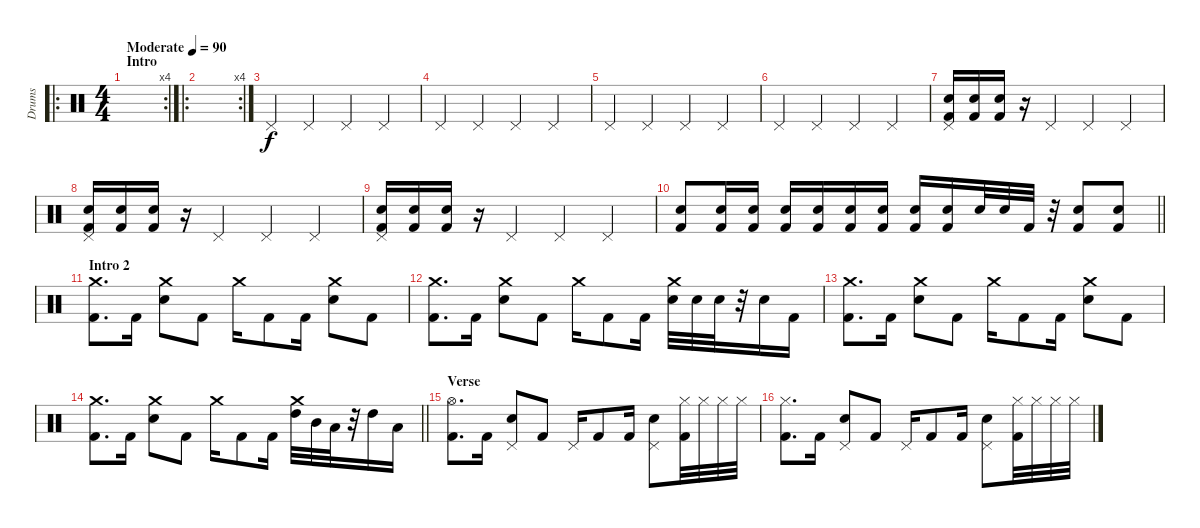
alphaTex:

\track ("Drums" "Drums") {instrument percussion}
\staff {score}
\articulation defaults
\ro
\rc 4
\ts (4 4)
\section ("" "Intro")
\tempo (90 "Moderate")
\clef neutral
\ks c
|
\ro
\rc 4
|
"Pedal Hi-Hat (hit)".4 "Pedal Hi-Hat (hit)".4 "Pedal Hi-Hat (hit)".4 "Pedal Hi-Hat (hit)".4 |
"Pedal Hi-Hat (hit)".4 "Pedal Hi-Hat (hit)".4 "Pedal Hi-Hat (hit)".4 "Pedal Hi-Hat (hit)".4 |
"Pedal Hi-Hat (hit)".4 "Pedal Hi-Hat (hit)".4 "Pedal Hi-Hat (hit)".4 "Pedal Hi-Hat (hit)".4 |
"Pedal Hi-Hat (hit)".4 "Pedal Hi-Hat (hit)".4 "Pedal Hi-Hat (hit)".4 "Pedal Hi-Hat (hit)".4 |
("Pedal Hi-Hat (hit)" "Electric Snare (hit)" "Kick (hit) 2").16 ("Electric Snare (hit)" "Kick (hit) 2").16 ("Electric Snare (hit)" "Kick (hit) 2").16 r.16 "Pedal Hi-Hat (hit)".4 "Pedal Hi-Hat (hit)".4 "Pedal Hi-Hat (hit)".4 |
("Pedal Hi-Hat (hit)" "Electric Snare (hit)" "Kick (hit) 2").16 ("Electric Snare (hit)" "Kick (hit) 2").16 ("Electric Snare (hit)" "Kick (hit) 2").16 r.16 "Pedal Hi-Hat (hit)".4 "Pedal Hi-Hat (hit)".4 "Pedal Hi-Hat (hit)".4 |
("Pedal Hi-Hat (hit)" "Electric Snare (hit)" "Kick (hit) 2").16 ("Electric Snare (hit)" "Kick (hit) 2").16 ("Electric Snare (hit)" "Kick (hit) 2").16 r.16 "Pedal Hi-Hat (hit)".4 "Pedal Hi-Hat (hit)".4 "Pedal Hi-Hat (hit)".4 |
\barLineRight lightlight
("Electric Snare (hit)" "Kick (hit) 2").8 ("Electric Snare (hit)" "Kick (hit) 2").16 ("Electric Snare (hit)" "Kick (hit) 2").16 ("Electric Snare (hit)" "Kick (hit) 2").16 ("Electric Snare (hit)" "Kick (hit) 2").16 ("Electric Snare (hit)" "Kick (hit) 2").16 ("Electric Snare (hit)" "Kick (hit) 2").16 ("Electric Snare (hit)" "Kick (hit) 2").16 ("Electric Snare (hit)" "Kick (hit) 2").16 "Electric Snare (hit)".32 "Electric Snare (hit)".32 "Kick (hit) 2".32 r.32 ("Electric Snare (hit)" "Kick (hit) 2").8 ("Electric Snare (hit)" "Kick (hit) 2").8 |
\section ("" "Intro 2")
("Crash medium (hit)" "Kick (hit) 2").8{d} "Kick (hit) 2".16 ("Crash medium (hit)" "Electric Snare (hit)").8 "Kick (hit) 2".8 "Crash medium (hit)".16 "Kick (hit) 2".8 "Kick (hit) 2".16 ("Crash medium (hit)" "Electric Snare (hit)").8 "Kick (hit) 2".8 |
("Crash medium (hit)" "Kick (hit) 2").8{d} "Kick (hit) 2".16 ("Crash medium (hit)" "Electric Snare (hit)").8 "Kick (hit) 2".8 "Crash medium (hit)".16 "Kick (hit) 2".8 "Kick (hit) 2".16 ("Crash medium (hit)" "Electric Snare (hit)").32 "Electric Snare (hit)".32 "Electric Snare (hit)".32 r.32 "Electric Snare (hit)".16 "Kick (hit) 2".16 |
("Crash medium (hit)" "Kick (hit) 2").8{d} "Kick (hit) 2".16 ("Crash medium (hit)" "Electric Snare (hit)").8 "Kick (hit) 2".8 "Crash medium (hit)".16 "Kick (hit) 2".8 "Kick (hit) 2".16 ("Crash medium (hit)" "Electric Snare (hit)").8 "Kick (hit) 2".8 |
\barLineRight lightlight
("Crash medium (hit)" "Kick (hit) 2").8{d} "Kick (hit) 2".16 ("Crash medium (hit)" "Electric Snare (hit)").8 "Kick (hit) 2".8 "Crash medium (hit)".16 "Kick (hit) 2".8 "Kick (hit) 2".16 ("Crash medium (hit)" "High Tom (hit)").32 "Mid Tom (hit)".32 "Low Tom (hit)".32 r.32 "High Tom (hit)".16 "Low Tom (hit)".16 |
\section ("" "Verse")
("Hi-Hat (open)" "Kick (hit) 2").8{d} "Kick (hit) 2".16 ("Pedal Hi-Hat (hit)" "Electric Snare (hit)").8 "Kick (hit) 2".8 "Pedal Hi-Hat (hit)".16 "Kick (hit) 2".8 "Kick (hit) 2".16 ("Pedal Hi-Hat (hit)" "Electric Snare (hit)").8 ("Hi-Hat (closed)" "Kick (hit) 2").32 "Hi-Hat (closed)".32 "Hi-Hat (closed)".32 "Hi-Hat (closed)".32 |
("Hi-Hat (closed)" "Kick (hit) 2").8{d} "Kick (hit) 2".16 ("Pedal Hi-Hat (hit)" "Electric Snare (hit)").8 "Kick (hit) 2".8 "Pedal Hi-Hat (hit)".16 "Kick (hit) 2".8 "Kick (hit) 2".16 ("Pedal Hi-Hat (hit)" "Electric Snare (hit)").8 ("Hi-Hat (closed)" "Kick (hit) 2").32 "Hi-Hat (closed)".32 "Hi-Hat (closed)".32 "Hi-Hat (closed)".32
